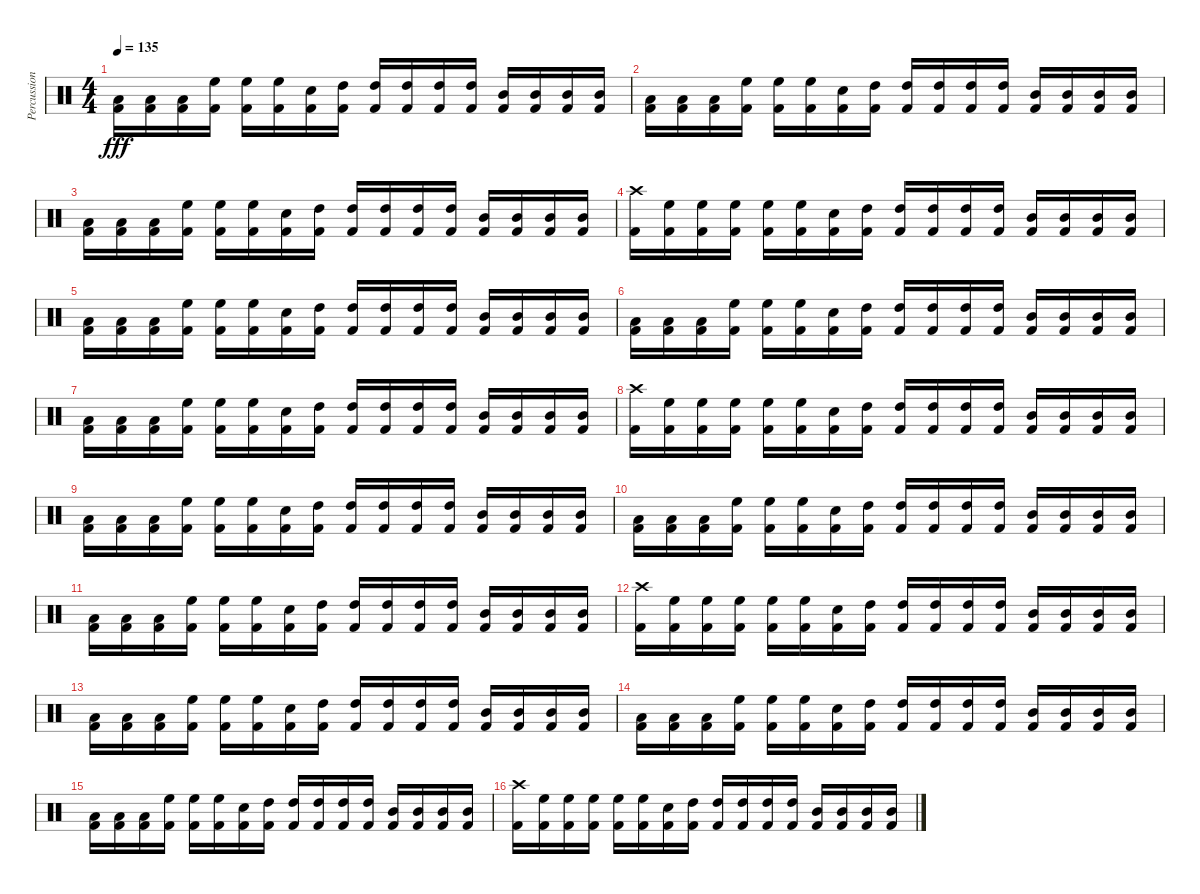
\track ("Percussion" "Percussion") {instrument percussion}
\staff {score}
\articulation defaults
\ts (4 4)
\tempo 135
\clef neutral
\ks c
("Low Tom (hit)" "Kick (hit) 2").16{dy fff} ("Low Tom (hit)" "Kick (hit) 2").16 ("Low Tom (hit)" "Kick (hit) 2").16 ("High Floor Tom (hit)" "Kick (hit) 2").16 ("High Floor Tom (hit)" "Kick (hit) 2").16 ("High Floor Tom (hit)" "Kick (hit) 2").16 ("Snare (hit) 2" "Kick (hit) 2").16 ("High Tom (hit)" "Kick (hit) 2").16 ("High Tom (hit)" "Kick (hit) 2").16 ("High Tom (hit)" "Kick (hit) 2").16 ("High Tom (hit)" "Kick (hit) 2").16 ("High Tom (hit)" "Kick (hit) 2").16 ("Mid Tom (hit)" "Kick (hit) 2").16 ("Mid Tom (hit)" "Kick (hit) 2").16 ("Mid Tom (hit)" "Kick (hit) 2").16 ("Mid Tom (hit)" "Kick (hit) 2").16 |
("Low Tom (hit)" "Kick (hit) 2").16 ("Low Tom (hit)" "Kick (hit) 2").16 ("Low Tom (hit)" "Kick (hit) 2").16 ("High Floor Tom (hit)" "Kick (hit) 2").16 ("High Floor Tom (hit)" "Kick (hit) 2").16 ("High Floor Tom (hit)" "Kick (hit) 2").16 ("Snare (hit) 2" "Kick (hit) 2").16 ("High Tom (hit)" "Kick (hit) 2").16 ("High Tom (hit)" "Kick (hit) 2").16 ("High Tom (hit)" "Kick (hit) 2").16 ("High Tom (hit)" "Kick (hit) 2").16 ("High Tom (hit)" "Kick (hit) 2").16 ("Mid Tom (hit)" "Kick (hit) 2").16 ("Mid Tom (hit)" "Kick (hit) 2").16 ("Mid Tom (hit)" "Kick (hit) 2").16 ("Mid Tom (hit)" "Kick (hit) 2").16 |
("Low Tom (hit)" "Kick (hit) 2").16 ("Low Tom (hit)" "Kick (hit) 2").16 ("Low Tom (hit)" "Kick (hit) 2").16 ("High Floor Tom (hit)" "Kick (hit) 2").16 ("High Floor Tom (hit)" "Kick (hit) 2").16 ("High Floor Tom (hit)" "Kick (hit) 2").16 ("Snare (hit) 2" "Kick (hit) 2").16 ("High Tom (hit)" "Kick (hit) 2").16 ("High Tom (hit)" "Kick (hit) 2").16 ("High Tom (hit)" "Kick (hit) 2").16 ("High Tom (hit)" "Kick (hit) 2").16 ("High Tom (hit)" "Kick (hit) 2").16 ("Mid Tom (hit)" "Kick (hit) 2").16 ("Mid Tom (hit)" "Kick (hit) 2").16 ("Mid Tom (hit)" "Kick (hit) 2").16 ("Mid Tom (hit)" "Kick (hit) 2").16 |
("Crash high (hit)" "Kick (hit) 2").16 ("High Floor Tom (hit)" "Kick (hit) 2").16 ("High Floor Tom (hit)" "Kick (hit) 2").16 ("High Floor Tom (hit)" "Kick (hit) 2").16 ("High Floor Tom (hit)" "Kick (hit) 2").16 ("High Floor Tom (hit)" "Kick (hit) 2").16 ("Snare (hit) 2" "Kick (hit) 2").16 ("High Tom (hit)" "Kick (hit) 2").16 ("High Tom (hit)" "Kick (hit) 2").16 ("High Tom (hit)" "Kick (hit) 2").16 ("High Tom (hit)" "Kick (hit) 2").16 ("High Tom (hit)" "Kick (hit) 2").16 ("Mid Tom (hit)" "Kick (hit) 2").16 ("Mid Tom (hit)" "Kick (hit) 2").16 ("Mid Tom (hit)" "Kick (hit) 2").16 ("Mid Tom (hit)" "Kick (hit) 2").16 |
("Low Tom (hit)" "Kick (hit) 2").16 ("Low Tom (hit)" "Kick (hit) 2").16 ("Low Tom (hit)" "Kick (hit) 2").16 ("High Floor Tom (hit)" "Kick (hit) 2").16 ("High Floor Tom (hit)" "Kick (hit) 2").16 ("High Floor Tom (hit)" "Kick (hit) 2").16 ("Snare (hit) 2" "Kick (hit) 2").16 ("High Tom (hit)" "Kick (hit) 2").16 ("High Tom (hit)" "Kick (hit) 2").16 ("High Tom (hit)" "Kick (hit) 2").16 ("High Tom (hit)" "Kick (hit) 2").16 ("High Tom (hit)" "Kick (hit) 2").16 ("Mid Tom (hit)" "Kick (hit) 2").16 ("Mid Tom (hit)" "Kick (hit) 2").16 ("Mid Tom (hit)" "Kick (hit) 2").16 ("Mid Tom (hit)" "Kick (hit) 2").16 |
("Low Tom (hit)" "Kick (hit) 2").16 ("Low Tom (hit)" "Kick (hit) 2").16 ("Low Tom (hit)" "Kick (hit) 2").16 ("High Floor Tom (hit)" "Kick (hit) 2").16 ("High Floor Tom (hit)" "Kick (hit) 2").16 ("High Floor Tom (hit)" "Kick (hit) 2").16 ("Snare (hit) 2" "Kick (hit) 2").16 ("High Tom (hit)" "Kick (hit) 2").16 ("High Tom (hit)" "Kick (hit) 2").16 ("High Tom (hit)" "Kick (hit) 2").16 ("High Tom (hit)" "Kick (hit) 2").16 ("High Tom (hit)" "Kick (hit) 2").16 ("Mid Tom (hit)" "Kick (hit) 2").16 ("Mid Tom (hit)" "Kick (hit) 2").16 ("Mid Tom (hit)" "Kick (hit) 2").16 ("Mid Tom (hit)" "Kick (hit) 2").16 |
("Low Tom (hit)" "Kick (hit) 2").16 ("Low Tom (hit)" "Kick (hit) 2").16 ("Low Tom (hit)" "Kick (hit) 2").16 ("High Floor Tom (hit)" "Kick (hit) 2").16 ("High Floor Tom (hit)" "Kick (hit) 2").16 ("High Floor Tom (hit)" "Kick (hit) 2").16 ("Snare (hit) 2" "Kick (hit) 2").16 ("High Tom (hit)" "Kick (hit) 2").16 ("High Tom (hit)" "Kick (hit) 2").16 ("High Tom (hit)" "Kick (hit) 2").16 ("High Tom (hit)" "Kick (hit) 2").16 ("High Tom (hit)" "Kick (hit) 2").16 ("Mid Tom (hit)" "Kick (hit) 2").16 ("Mid Tom (hit)" "Kick (hit) 2").16 ("Mid Tom (hit)" "Kick (hit) 2").16 ("Mid Tom (hit)" "Kick (hit) 2").16 |
("Crash high (hit)" "Kick (hit) 2").16 ("High Floor Tom (hit)" "Kick (hit) 2").16 ("High Floor Tom (hit)" "Kick (hit) 2").16 ("High Floor Tom (hit)" "Kick (hit) 2").16 ("High Floor Tom (hit)" "Kick (hit) 2").16 ("High Floor Tom (hit)" "Kick (hit) 2").16 ("Snare (hit) 2" "Kick (hit) 2").16 ("High Tom (hit)" "Kick (hit) 2").16 ("High Tom (hit)" "Kick (hit) 2").16 ("High Tom (hit)" "Kick (hit) 2").16 ("High Tom (hit)" "Kick (hit) 2").16 ("High Tom (hit)" "Kick (hit) 2").16 ("Mid Tom (hit)" "Kick (hit) 2").16 ("Mid Tom (hit)" "Kick (hit) 2").16 ("Mid Tom (hit)" "Kick (hit) 2").16 ("Mid Tom (hit)" "Kick (hit) 2").16 |
("Low Tom (hit)" "Kick (hit) 2").16 ("Low Tom (hit)" "Kick (hit) 2").16 ("Low Tom (hit)" "Kick (hit) 2").16 ("High Floor Tom (hit)" "Kick (hit) 2").16 ("High Floor Tom (hit)" "Kick (hit) 2").16 ("High Floor Tom (hit)" "Kick (hit) 2").16 ("Snare (hit) 2" "Kick (hit) 2").16 ("High Tom (hit)" "Kick (hit) 2").16 ("High Tom (hit)" "Kick (hit) 2").16 ("High Tom (hit)" "Kick (hit) 2").16 ("High Tom (hit)" "Kick (hit) 2").16 ("High Tom (hit)" "Kick (hit) 2").16 ("Mid Tom (hit)" "Kick (hit) 2").16 ("Mid Tom (hit)" "Kick (hit) 2").16 ("Mid Tom (hit)" "Kick (hit) 2").16 ("Mid Tom (hit)" "Kick (hit) 2").16 |
("Low Tom (hit)" "Kick (hit) 2").16 ("Low Tom (hit)" "Kick (hit) 2").16 ("Low Tom (hit)" "Kick (hit) 2").16 ("High Floor Tom (hit)" "Kick (hit) 2").16 ("High Floor Tom (hit)" "Kick (hit) 2").16 ("High Floor Tom (hit)" "Kick (hit) 2").16 ("Snare (hit) 2" "Kick (hit) 2").16 ("High Tom (hit)" "Kick (hit) 2").16 ("High Tom (hit)" "Kick (hit) 2").16 ("High Tom (hit)" "Kick (hit) 2").16 ("High Tom (hit)" "Kick (hit) 2").16 ("High Tom (hit)" "Kick (hit) 2").16 ("Mid Tom (hit)" "Kick (hit) 2").16 ("Mid Tom (hit)" "Kick (hit) 2").16 ("Mid Tom (hit)" "Kick (hit) 2").16 ("Mid Tom (hit)" "Kick (hit) 2").16 |
("Low Tom (hit)" "Kick (hit) 2").16 ("Low Tom (hit)" "Kick (hit) 2").16 ("Low Tom (hit)" "Kick (hit) 2").16 ("High Floor Tom (hit)" "Kick (hit) 2").16 ("High Floor Tom (hit)" "Kick (hit) 2").16 ("High Floor Tom (hit)" "Kick (hit) 2").16 ("Snare (hit) 2" "Kick (hit) 2").16 ("High Tom (hit)" "Kick (hit) 2").16 ("High Tom (hit)" "Kick (hit) 2").16 ("High Tom (hit)" "Kick (hit) 2").16 ("High Tom (hit)" "Kick (hit) 2").16 ("High Tom (hit)" "Kick (hit) 2").16 ("Mid Tom (hit)" "Kick (hit) 2").16 ("Mid Tom (hit)" "Kick (hit) 2").16 ("Mid Tom (hit)" "Kick (hit) 2").16 ("Mid Tom (hit)" "Kick (hit) 2").16 |
("Crash high (hit)" "Kick (hit) 2").16 ("High Floor Tom (hit)" "Kick (hit) 2").16 ("High Floor Tom (hit)" "Kick (hit) 2").16 ("High Floor Tom (hit)" "Kick (hit) 2").16 ("High Floor Tom (hit)" "Kick (hit) 2").16 ("High Floor Tom (hit)" "Kick (hit) 2").16 ("Snare (hit) 2" "Kick (hit) 2").16 ("High Tom (hit)" "Kick (hit) 2").16 ("High Tom (hit)" "Kick (hit) 2").16 ("High Tom (hit)" "Kick (hit) 2").16 ("High Tom (hit)" "Kick (hit) 2").16 ("High Tom (hit)" "Kick (hit) 2").16 ("Mid Tom (hit)" "Kick (hit) 2").16 ("Mid Tom (hit)" "Kick (hit) 2").16 ("Mid Tom (hit)" "Kick (hit) 2").16 ("Mid Tom (hit)" "Kick (hit) 2").16 |
("Low Tom (hit)" "Kick (hit) 2").16 ("Low Tom (hit)" "Kick (hit) 2").16 ("Low Tom (hit)" "Kick (hit) 2").16 ("High Floor Tom (hit)" "Kick (hit) 2").16 ("High Floor Tom (hit)" "Kick (hit) 2").16 ("High Floor Tom (hit)" "Kick (hit) 2").16 ("Snare (hit) 2" "Kick (hit) 2").16 ("High Tom (hit)" "Kick (hit) 2").16 ("High Tom (hit)" "Kick (hit) 2").16 ("High Tom (hit)" "Kick (hit) 2").16 ("High Tom (hit)" "Kick (hit) 2").16 ("High Tom (hit)" "Kick (hit) 2").16 ("Mid Tom (hit)" "Kick (hit) 2").16 ("Mid Tom (hit)" "Kick (hit) 2").16 ("Mid Tom (hit)" "Kick (hit) 2").16 ("Mid Tom (hit)" "Kick (hit) 2").16 |
("Low Tom (hit)" "Kick (hit) 2").16 ("Low Tom (hit)" "Kick (hit) 2").16 ("Low Tom (hit)" "Kick (hit) 2").16 ("High Floor Tom (hit)" "Kick (hit) 2").16 ("High Floor Tom (hit)" "Kick (hit) 2").16 ("High Floor Tom (hit)" "Kick (hit) 2").16 ("Snare (hit) 2" "Kick (hit) 2").16 ("High Tom (hit)" "Kick (hit) 2").16 ("High Tom (hit)" "Kick (hit) 2").16 ("High Tom (hit)" "Kick (hit) 2").16 ("High Tom (hit)" "Kick (hit) 2").16 ("High Tom (hit)" "Kick (hit) 2").16 ("Mid Tom (hit)" "Kick (hit) 2").16 ("Mid Tom (hit)" "Kick (hit) 2").16 ("Mid Tom (hit)" "Kick (hit) 2").16 ("Mid Tom (hit)" "Kick (hit) 2").16 |
("Low Tom (hit)" "Kick (hit) 2").16 ("Low Tom (hit)" "Kick (hit) 2").16 ("Low Tom (hit)" "Kick (hit) 2").16 ("High Floor Tom (hit)" "Kick (hit) 2").16 ("High Floor Tom (hit)" "Kick (hit) 2").16 ("High Floor Tom (hit)" "Kick (hit) 2").16 ("Snare (hit) 2" "Kick (hit) 2").16 ("High Tom (hit)" "Kick (hit) 2").16 ("High Tom (hit)" "Kick (hit) 2").16 ("High Tom (hit)" "Kick (hit) 2").16 ("High Tom (hit)" "Kick (hit) 2").16 ("High Tom (hit)" "Kick (hit) 2").16 ("Mid Tom (hit)" "Kick (hit) 2").16 ("Mid Tom (hit)" "Kick (hit) 2").16 ("Mid Tom (hit)" "Kick (hit) 2").16 ("Mid Tom (hit)" "Kick (hit) 2").16 |
("Crash high (hit)" "Kick (hit) 2").16 ("High Floor Tom (hit)" "Kick (hit) 2").16 ("High Floor Tom (hit)" "Kick (hit) 2").16 ("High Floor Tom (hit)" "Kick (hit) 2").16 ("High Floor Tom (hit)" "Kick (hit) 2").16 ("High Floor Tom (hit)" "Kick (hit) 2").16 ("Snare (hit) 2" "Kick (hit) 2").16 ("High Tom (hit)" "Kick (hit) 2").16 ("High Tom (hit)" "Kick (hit) 2").16 ("High Tom (hit)" "Kick (hit) 2").16 ("High Tom (hit)" "Kick (hit) 2").16 ("High Tom (hit)" "Kick (hit) 2").16 ("Mid Tom (hit)" "Kick (hit) 2").16 ("Mid Tom (hit)" "Kick (hit) 2").16 ("Mid Tom (hit)" "Kick (hit) 2").16 ("Mid Tom (hit)" "Kick (hit) 2").16
